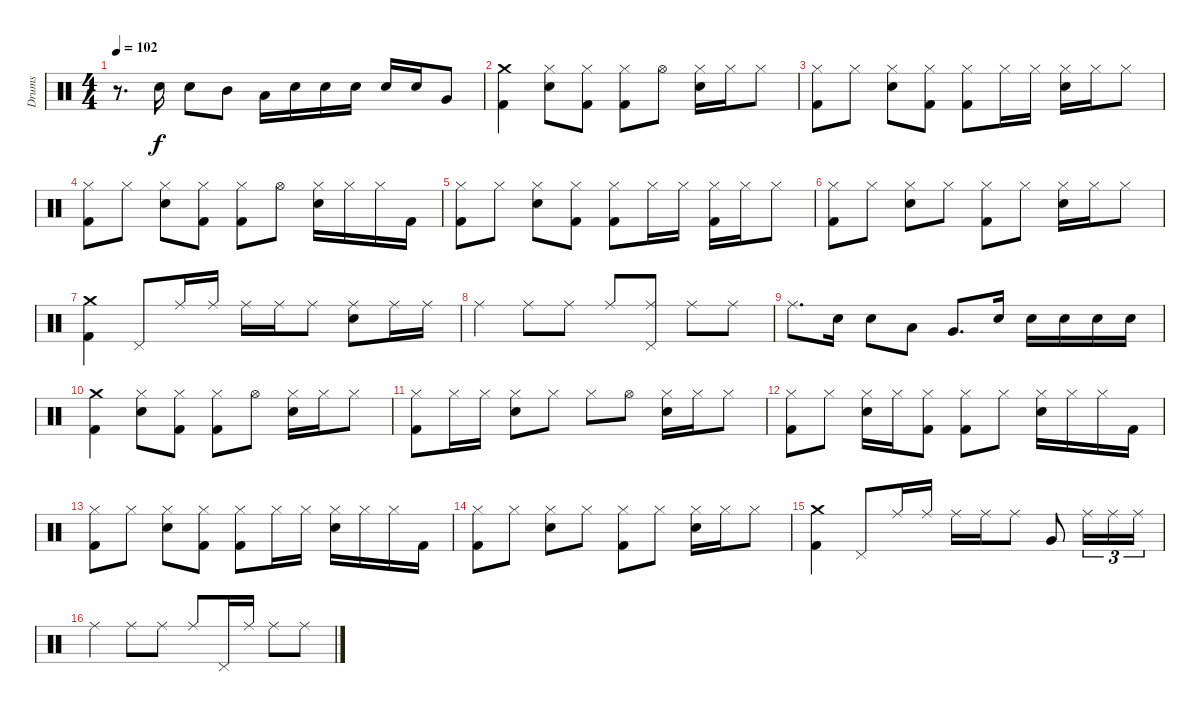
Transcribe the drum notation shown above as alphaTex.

\track ("Drums" "Drums") {instrument percussion}
\staff {score}
\articulation defaults
\ts (4 4)
\tempo 102
\clef neutral
\ks c
r.8{d dy f} "Snare (hit) 2".16 "Snare (hit) 2".8 "Mid Tom (hit)".8 "Low Tom (hit)".16 "Snare (hit) 2".16 "Snare (hit) 2".16 "Snare (hit) 2".16 "Snare (hit) 2".16 "Snare (hit) 2".16 "Very Low Tom (hit)".8 |
("Crash medium (hit)" "Kick (hit) 2").4 ("Hi-Hat (closed)" "Snare (hit) 2").8 ("Hi-Hat (closed)" "Kick (hit) 2").8 ("Hi-Hat (closed)" "Kick (hit) 2").8 "Hi-Hat (open)".8 ("Hi-Hat (closed)" "Snare (hit) 2").16 "Hi-Hat (closed)".16 "Hi-Hat (closed)".8 |
("Hi-Hat (closed)" "Kick (hit) 2").8 "Hi-Hat (closed)".8 ("Hi-Hat (closed)" "Snare (hit) 2").8 ("Hi-Hat (closed)" "Kick (hit) 2").8 ("Hi-Hat (closed)" "Kick (hit) 2").8 "Hi-Hat (closed)".16 "Hi-Hat (closed)".16 ("Hi-Hat (closed)" "Snare (hit) 2").16 "Hi-Hat (closed)".16 "Hi-Hat (closed)".8 |
("Hi-Hat (closed)" "Kick (hit) 2").8 "Hi-Hat (closed)".8 ("Hi-Hat (closed)" "Snare (hit) 2").8 ("Hi-Hat (closed)" "Kick (hit) 2").8 ("Hi-Hat (closed)" "Kick (hit) 2").8 "Hi-Hat (open)".8 ("Hi-Hat (closed)" "Snare (hit) 2").16 "Hi-Hat (closed)".16 "Hi-Hat (closed)".16 "Kick (hit) 2".16 |
("Hi-Hat (closed)" "Kick (hit) 2").8 "Hi-Hat (closed)".8 ("Hi-Hat (closed)" "Snare (hit) 2").8 ("Hi-Hat (closed)" "Kick (hit) 2").8 ("Hi-Hat (closed)" "Kick (hit) 2").8 "Hi-Hat (closed)".16 "Hi-Hat (closed)".16 ("Hi-Hat (closed)" "Kick (hit) 2").16 "Hi-Hat (closed)".16 "Hi-Hat (closed)".8 |
("Hi-Hat (closed)" "Kick (hit) 2").8 "Hi-Hat (closed)".8 ("Hi-Hat (closed)" "Snare (hit) 2").8 "Hi-Hat (closed)".8 ("Hi-Hat (closed)" "Kick (hit) 2").8 "Hi-Hat (closed)".8 ("Hi-Hat (closed)" "Snare (hit) 2").16 "Hi-Hat (closed)".16 "Hi-Hat (closed)".8 |
("Crash medium (hit)" "Kick (hit) 2").4 "Pedal Hi-Hat (hit)".8 "Ride (middle)".16 "Ride (middle)".16 "Ride (middle)".16 "Ride (middle)".16 "Ride (middle)".8 ("Ride (middle)" "Snare (hit) 2").8 "Ride (middle)".16 "Ride (middle)".16 |
"Ride (middle)".4 "Ride (middle)".8 "Ride (middle)".8 "Ride (middle)".8 ("Ride (middle)" "Pedal Hi-Hat (hit)").8 "Ride (middle)".8 "Ride (middle)".8 |
"Ride (middle)".8{d} "Snare (hit) 2".16 "Snare (hit) 2".8 "Low Tom (hit)".8 "Very Low Tom (hit)".8{d} "Snare (hit) 2".16 "Snare (hit) 2".16 "Snare (hit) 2".16 "Snare (hit) 2".16 "Snare (hit) 2".16 |
("Crash medium (hit)" "Kick (hit) 2").4 ("Hi-Hat (closed)" "Snare (hit) 2").8 ("Hi-Hat (closed)" "Kick (hit) 2").8 ("Hi-Hat (closed)" "Kick (hit) 2").8 "Hi-Hat (open)".8 ("Hi-Hat (closed)" "Snare (hit) 2").16 "Hi-Hat (closed)".16 "Hi-Hat (closed)".8 |
("Hi-Hat (closed)" "Kick (hit) 2").8 "Hi-Hat (closed)".16 "Hi-Hat (closed)".16 ("Hi-Hat (closed)" "Snare (hit) 2").8 "Hi-Hat (closed)".8 "Hi-Hat (closed)".8 "Hi-Hat (open)".8 ("Hi-Hat (closed)" "Snare (hit) 2").16 "Hi-Hat (closed)".16 "Hi-Hat (closed)".8 |
("Hi-Hat (closed)" "Kick (hit) 2").8 "Hi-Hat (closed)".8 ("Hi-Hat (closed)" "Snare (hit) 2").16 "Hi-Hat (closed)".16 ("Hi-Hat (closed)" "Kick (hit) 2").8 ("Hi-Hat (closed)" "Kick (hit) 2").8 "Hi-Hat (closed)".8 ("Hi-Hat (closed)" "Snare (hit) 2").16 "Hi-Hat (closed)".16 "Hi-Hat (closed)".16 "Kick (hit) 2".16 |
("Hi-Hat (closed)" "Kick (hit) 2").8 "Hi-Hat (closed)".8 ("Hi-Hat (closed)" "Snare (hit) 2").8 ("Hi-Hat (closed)" "Kick (hit) 2").8 ("Hi-Hat (closed)" "Kick (hit) 2").8 "Hi-Hat (closed)".16 "Hi-Hat (closed)".16 ("Hi-Hat (closed)" "Snare (hit) 2").16 "Hi-Hat (closed)".16 "Hi-Hat (closed)".16 "Kick (hit) 2".16 |
("Hi-Hat (closed)" "Kick (hit) 2").8 "Hi-Hat (closed)".8 ("Hi-Hat (closed)" "Snare (hit) 2").8 "Hi-Hat (closed)".8 ("Hi-Hat (closed)" "Kick (hit) 2").8 "Hi-Hat (closed)".8 ("Hi-Hat (closed)" "Snare (hit) 2").16 "Hi-Hat (closed)".16 "Hi-Hat (closed)".8 |
("Crash medium (hit)" "Kick (hit) 2").4 "Pedal Hi-Hat (hit)".8 "Ride (middle)".16 "Ride (middle)".16 "Ride (middle)".16 "Ride (middle)".16 "Ride (middle)".8 "Very Low Tom (hit)".8 "Ride (middle)".16{tu (3 2)} "Ride (middle)".16{tu (3 2)} "Ride (middle)".16{tu (3 2)} |
"Ride (middle)".4 "Ride (middle)".8 "Ride (middle)".8 "Ride (middle)".8 "Pedal Hi-Hat (hit)".16 "Ride (middle)".16 "Ride (middle)".8 "Ride (middle)".8
